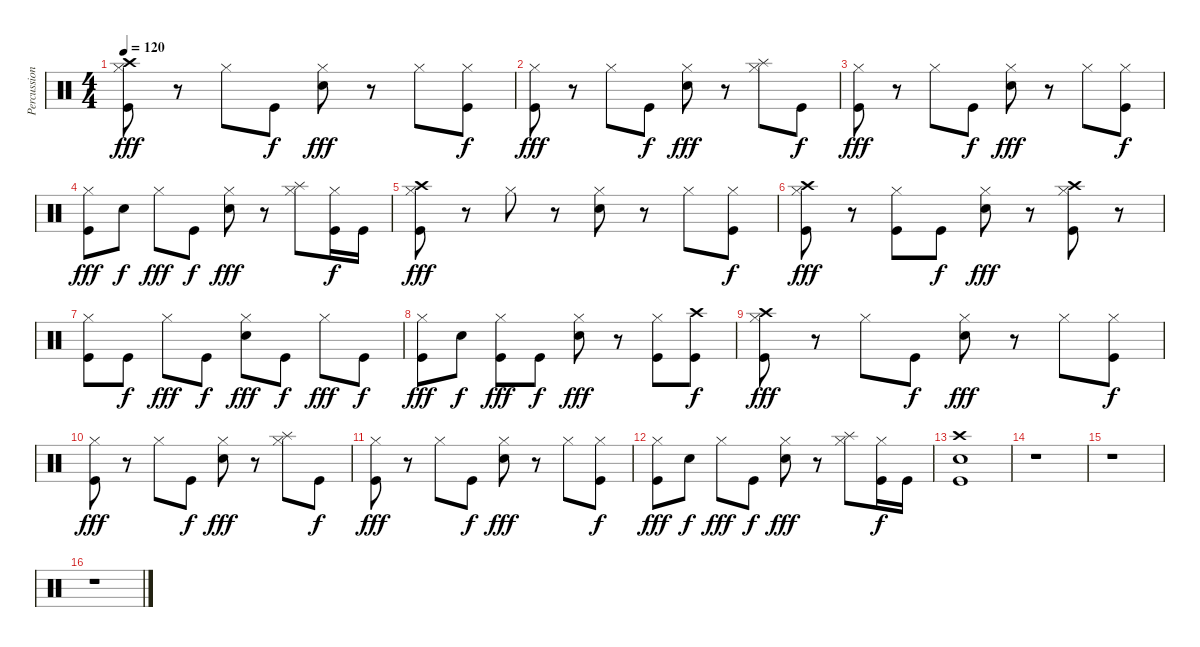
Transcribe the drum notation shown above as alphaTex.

\track ("Percussion" "Percussion") {instrument percussion}
\staff {score}
\articulation defaults
\ts (4 4)
\tempo 120
\clef neutral
\ks c
("Hi-Hat (closed)" "Crash high (hit)" "Kick (hit)").8{dy fff} r.8 "Hi-Hat (closed)".8 "Kick (hit)".8{dy f} ("Hi-Hat (closed)" "Snare (hit) 2").8{dy fff} r.8 "Hi-Hat (closed)".8 ("Hi-Hat (closed)" "Kick (hit)").8{dy f} |
("Hi-Hat (closed)" "Kick (hit)").8{dy fff} r.8 "Hi-Hat (closed)".8 "Kick (hit)".8{dy f} ("Hi-Hat (closed)" "Snare (hit) 2").8{dy fff} r.8 ("Hi-Hat (closed)" "Splash (hit)").8 "Kick (hit)".8{dy f} |
("Hi-Hat (closed)" "Kick (hit)").8{dy fff} r.8 "Hi-Hat (closed)".8 "Kick (hit)".8{dy f} ("Hi-Hat (closed)" "Snare (hit) 2").8{dy fff} r.8 "Hi-Hat (closed)".8 ("Hi-Hat (closed)" "Kick (hit)").8{dy f} |
("Hi-Hat (closed)" "Kick (hit)").8{dy fff} "Snare (hit) 2".8{dy f} "Hi-Hat (closed)".8{dy fff} "Kick (hit)".8{dy f} ("Hi-Hat (closed)" "Snare (hit) 2").8{dy fff} r.8 ("Hi-Hat (closed)" "Splash (hit)").8 ("Hi-Hat (closed)" "Kick (hit)").16{dy f} "Kick (hit)".16 |
("Hi-Hat (closed)" "Crash high (hit)" "Kick (hit)").8{dy fff} r.8 "Hi-Hat (closed)".8 r.8 ("Hi-Hat (closed)" "Snare (hit) 2").8 r.8 "Hi-Hat (closed)".8 ("Hi-Hat (closed)" "Kick (hit)").8{dy f} |
("Hi-Hat (closed)" "Crash high (hit)" "Kick (hit)").8{dy fff} r.8 ("Hi-Hat (closed)" "Kick (hit)").8 "Kick (hit)".8{dy f} ("Hi-Hat (closed)" "Snare (hit) 2").8{dy fff} r.8 ("Hi-Hat (closed)" "Crash high (hit)" "Kick (hit)").8 r.8 |
("Hi-Hat (closed)" "Kick (hit)").8 "Kick (hit)".8{dy f} "Hi-Hat (closed)".8{dy fff} "Kick (hit)".8{dy f} ("Hi-Hat (closed)" "Snare (hit) 2").8{dy fff} "Kick (hit)".8{dy f} "Hi-Hat (closed)".8{dy fff} "Kick (hit)".8{dy f} |
("Hi-Hat (closed)" "Kick (hit)").8{dy fff} "Snare (hit) 2".8{dy f} ("Hi-Hat (closed)" "Kick (hit)").8{dy fff} "Kick (hit)".8{dy f} ("Hi-Hat (closed)" "Snare (hit) 2").8{dy fff} r.8 ("Hi-Hat (closed)" "Kick (hit)").8 ("Crash high (hit)" "Kick (hit)").8{dy f} |
("Hi-Hat (closed)" "Crash high (hit)" "Kick (hit)").8{dy fff} r.8 "Hi-Hat (closed)".8 "Kick (hit)".8{dy f} ("Hi-Hat (closed)" "Snare (hit) 2").8{dy fff} r.8 "Hi-Hat (closed)".8 ("Hi-Hat (closed)" "Kick (hit)").8{dy f} |
("Hi-Hat (closed)" "Kick (hit)").8{dy fff} r.8 "Hi-Hat (closed)".8 "Kick (hit)".8{dy f} ("Hi-Hat (closed)" "Snare (hit) 2").8{dy fff} r.8 ("Hi-Hat (closed)" "Splash (hit)").8 "Kick (hit)".8{dy f} |
("Hi-Hat (closed)" "Kick (hit)").8{dy fff} r.8 "Hi-Hat (closed)".8 "Kick (hit)".8{dy f} ("Hi-Hat (closed)" "Snare (hit) 2").8{dy fff} r.8 "Hi-Hat (closed)".8 ("Hi-Hat (closed)" "Kick (hit)").8{dy f} |
("Hi-Hat (closed)" "Kick (hit)").8{dy fff} "Snare (hit) 2".8{dy f} "Hi-Hat (closed)".8{dy fff} "Kick (hit)".8{dy f} ("Hi-Hat (closed)" "Snare (hit) 2").8{dy fff} r.8 ("Hi-Hat (closed)" "Splash (hit)").8 ("Hi-Hat (closed)" "Kick (hit)").16{dy f} "Kick (hit)".16 |
("Crash high (hit)" "Kick (hit)" "Snare (hit) 2").1 |
r.1 |
r.1 |
r.1
